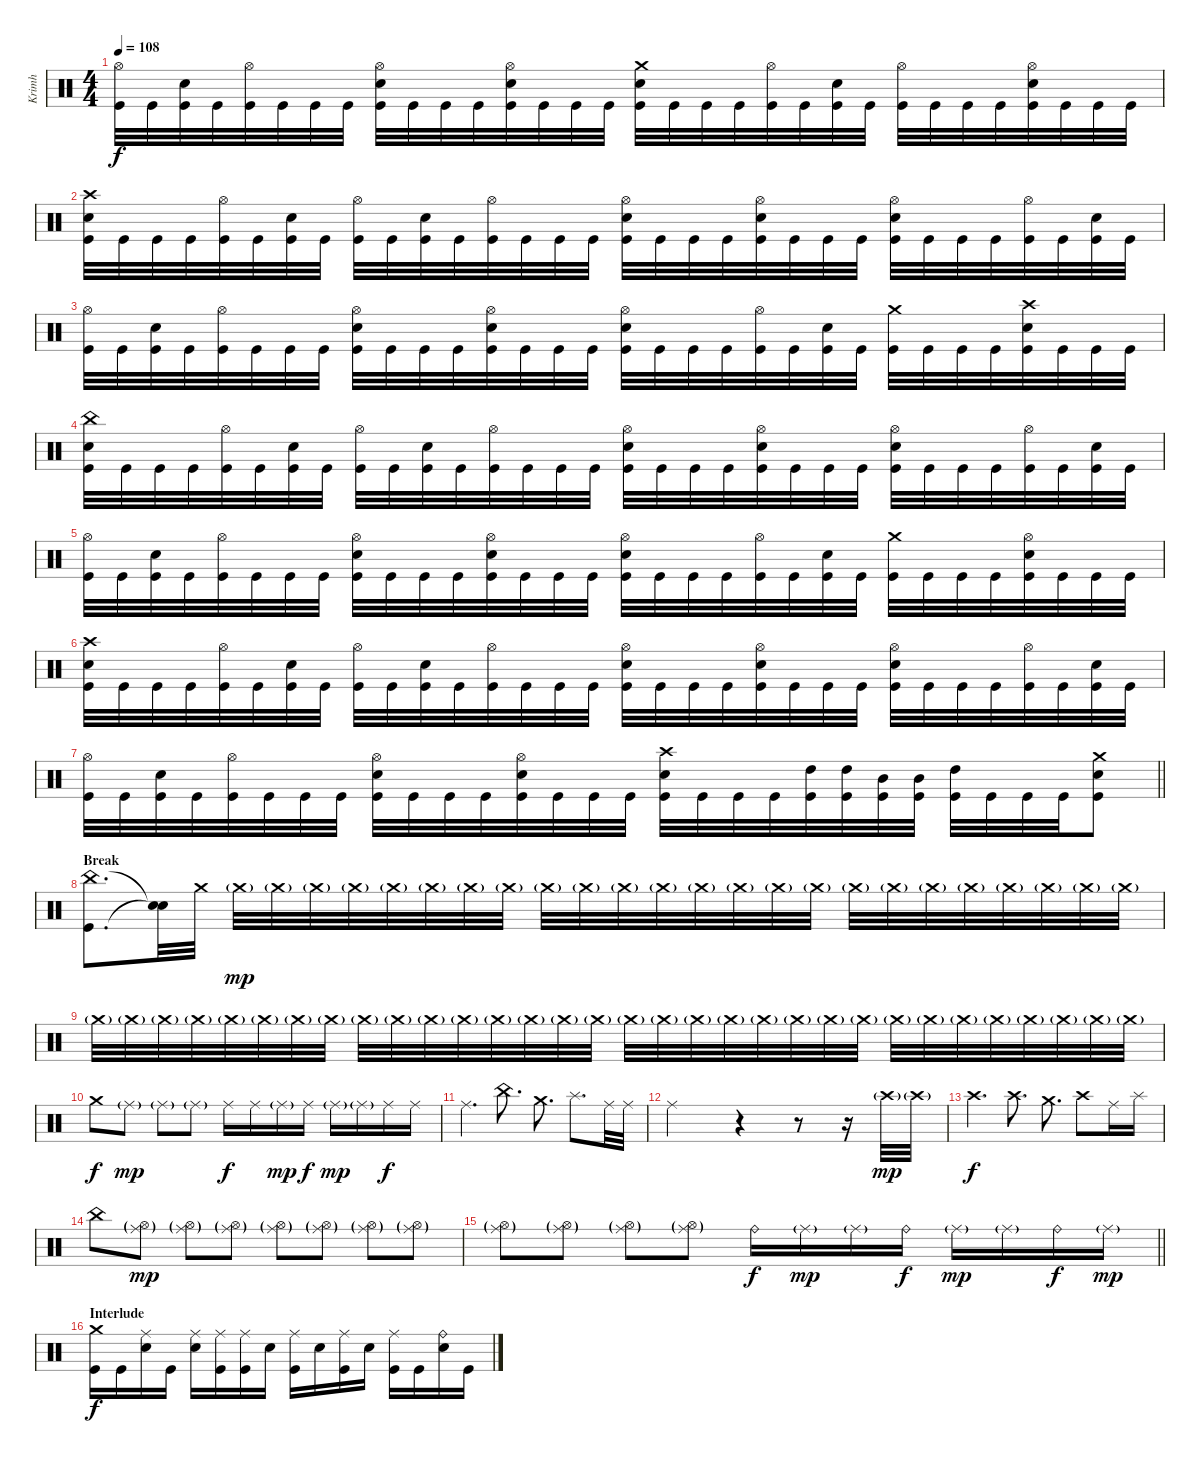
\track ("Krimh" "Krimh") {instrument percussion}
\staff {score}
\articulation defaults
\ts (4 4)
\tempo 108
\clef neutral
\ks c
("Hi-Hat (open)" "Kick (hit)").32{dy f} "Kick (hit)".32 ("Electric Snare (hit)" "Kick (hit)").32 "Kick (hit)".32 ("Hi-Hat (open)" "Kick (hit)").32 "Kick (hit)".32 "Kick (hit)".32 "Kick (hit)".32 ("Hi-Hat (open)" "Electric Snare (hit)" "Kick (hit)").32 "Kick (hit)".32 "Kick (hit)".32 "Kick (hit)".32 ("Hi-Hat (open)" "Electric Snare (hit)" "Kick (hit)").32 "Kick (hit)".32 "Kick (hit)".32 "Kick (hit)".32 ("Crash medium (hit)" "Electric Snare (hit)" "Kick (hit)").32 "Kick (hit)".32 "Kick (hit)".32 "Kick (hit)".32 ("Hi-Hat (open)" "Kick (hit)").32 "Kick (hit)".32 ("Electric Snare (hit)" "Kick (hit)").32 "Kick (hit)".32 ("Hi-Hat (open)" "Kick (hit)").32 "Kick (hit)".32 "Kick (hit)".32 "Kick (hit)".32 ("Hi-Hat (open)" "Electric Snare (hit)" "Kick (hit)").32 "Kick (hit)".32 "Kick (hit)".32 "Kick (hit)".32 |
("Crash high (hit)" "Electric Snare (hit)" "Kick (hit)").32 "Kick (hit)".32 "Kick (hit)".32 "Kick (hit)".32 ("Hi-Hat (open)" "Kick (hit)").32 "Kick (hit)".32 ("Electric Snare (hit)" "Kick (hit)").32 "Kick (hit)".32 ("Hi-Hat (open)" "Kick (hit)").32 "Kick (hit)".32 ("Electric Snare (hit)" "Kick (hit)").32 "Kick (hit)".32 ("Hi-Hat (open)" "Kick (hit)").32 "Kick (hit)".32 "Kick (hit)".32 "Kick (hit)".32 ("Hi-Hat (open)" "Electric Snare (hit)" "Kick (hit)").32 "Kick (hit)".32 "Kick (hit)".32 "Kick (hit)".32 ("Hi-Hat (open)" "Electric Snare (hit)" "Kick (hit)").32 "Kick (hit)".32 "Kick (hit)".32 "Kick (hit)".32 ("Hi-Hat (open)" "Electric Snare (hit)" "Kick (hit)").32 "Kick (hit)".32 "Kick (hit)".32 "Kick (hit)".32 ("Hi-Hat (open)" "Kick (hit)").32 "Kick (hit)".32 ("Electric Snare (hit)" "Kick (hit)").32 "Kick (hit)".32 |
("Hi-Hat (open)" "Kick (hit)").32 "Kick (hit)".32 ("Electric Snare (hit)" "Kick (hit)").32 "Kick (hit)".32 ("Hi-Hat (open)" "Kick (hit)").32 "Kick (hit)".32 "Kick (hit)".32 "Kick (hit)".32 ("Hi-Hat (open)" "Electric Snare (hit)" "Kick (hit)").32 "Kick (hit)".32 "Kick (hit)".32 "Kick (hit)".32 ("Hi-Hat (open)" "Electric Snare (hit)" "Kick (hit)").32 "Kick (hit)".32 "Kick (hit)".32 "Kick (hit)".32 ("Hi-Hat (open)" "Electric Snare (hit)" "Kick (hit)").32 "Kick (hit)".32 "Kick (hit)".32 "Kick (hit)".32 ("Hi-Hat (open)" "Kick (hit)").32 "Kick (hit)".32 ("Electric Snare (hit)" "Kick (hit)").32 "Kick (hit)".32 ("Crash medium (hit)" "Kick (hit)").32 "Kick (hit)".32 "Kick (hit)".32 "Kick (hit)".32 ("Crash high (hit)" "Electric Snare (hit)" "Kick (hit)").32 "Kick (hit)".32 "Kick (hit)".32 "Kick (hit)".32 |
("China (hit)" "Electric Snare (hit)" "Kick (hit)").32 "Kick (hit)".32 "Kick (hit)".32 "Kick (hit)".32 ("Hi-Hat (open)" "Kick (hit)").32 "Kick (hit)".32 ("Electric Snare (hit)" "Kick (hit)").32 "Kick (hit)".32 ("Hi-Hat (open)" "Kick (hit)").32 "Kick (hit)".32 ("Electric Snare (hit)" "Kick (hit)").32 "Kick (hit)".32 ("Hi-Hat (open)" "Kick (hit)").32 "Kick (hit)".32 "Kick (hit)".32 "Kick (hit)".32 ("Hi-Hat (open)" "Electric Snare (hit)" "Kick (hit)").32 "Kick (hit)".32 "Kick (hit)".32 "Kick (hit)".32 ("Hi-Hat (open)" "Electric Snare (hit)" "Kick (hit)").32 "Kick (hit)".32 "Kick (hit)".32 "Kick (hit)".32 ("Hi-Hat (open)" "Electric Snare (hit)" "Kick (hit)").32 "Kick (hit)".32 "Kick (hit)".32 "Kick (hit)".32 ("Hi-Hat (open)" "Kick (hit)").32 "Kick (hit)".32 ("Electric Snare (hit)" "Kick (hit)").32 "Kick (hit)".32 |
("Hi-Hat (open)" "Kick (hit)").32 "Kick (hit)".32 ("Electric Snare (hit)" "Kick (hit)").32 "Kick (hit)".32 ("Hi-Hat (open)" "Kick (hit)").32 "Kick (hit)".32 "Kick (hit)".32 "Kick (hit)".32 ("Hi-Hat (open)" "Electric Snare (hit)" "Kick (hit)").32 "Kick (hit)".32 "Kick (hit)".32 "Kick (hit)".32 ("Hi-Hat (open)" "Electric Snare (hit)" "Kick (hit)").32 "Kick (hit)".32 "Kick (hit)".32 "Kick (hit)".32 ("Hi-Hat (open)" "Electric Snare (hit)" "Kick (hit)").32 "Kick (hit)".32 "Kick (hit)".32 "Kick (hit)".32 ("Hi-Hat (open)" "Kick (hit)").32 "Kick (hit)".32 ("Electric Snare (hit)" "Kick (hit)").32 "Kick (hit)".32 ("Crash medium (hit)" "Kick (hit)").32 "Kick (hit)".32 "Kick (hit)".32 "Kick (hit)".32 ("Hi-Hat (open)" "Electric Snare (hit)" "Kick (hit)").32 "Kick (hit)".32 "Kick (hit)".32 "Kick (hit)".32 |
("Crash high (hit)" "Electric Snare (hit)" "Kick (hit)").32 "Kick (hit)".32 "Kick (hit)".32 "Kick (hit)".32 ("Hi-Hat (open)" "Kick (hit)").32 "Kick (hit)".32 ("Electric Snare (hit)" "Kick (hit)").32 "Kick (hit)".32 ("Hi-Hat (open)" "Kick (hit)").32 "Kick (hit)".32 ("Electric Snare (hit)" "Kick (hit)").32 "Kick (hit)".32 ("Hi-Hat (open)" "Kick (hit)").32 "Kick (hit)".32 "Kick (hit)".32 "Kick (hit)".32 ("Hi-Hat (open)" "Electric Snare (hit)" "Kick (hit)").32 "Kick (hit)".32 "Kick (hit)".32 "Kick (hit)".32 ("Hi-Hat (open)" "Electric Snare (hit)" "Kick (hit)").32 "Kick (hit)".32 "Kick (hit)".32 "Kick (hit)".32 ("Hi-Hat (open)" "Electric Snare (hit)" "Kick (hit)").32 "Kick (hit)".32 "Kick (hit)".32 "Kick (hit)".32 ("Hi-Hat (open)" "Kick (hit)").32 "Kick (hit)".32 ("Electric Snare (hit)" "Kick (hit)").32 "Kick (hit)".32 |
\barLineRight lightlight
("Hi-Hat (open)" "Kick (hit)").32 "Kick (hit)".32 ("Electric Snare (hit)" "Kick (hit)").32 "Kick (hit)".32 ("Hi-Hat (open)" "Kick (hit)").32 "Kick (hit)".32 "Kick (hit)".32 "Kick (hit)".32 ("Hi-Hat (open)" "Electric Snare (hit)" "Kick (hit)").32 "Kick (hit)".32 "Kick (hit)".32 "Kick (hit)".32 ("Hi-Hat (open)" "Electric Snare (hit)" "Kick (hit)").32 "Kick (hit)".32 "Kick (hit)".32 "Kick (hit)".32 ("Crash high (hit)" "Electric Snare (hit)" "Kick (hit)").32 "Kick (hit)".32 "Kick (hit)".32 "Kick (hit)".32 ("High Tom (hit)" "Kick (hit)").32 ("High Tom (hit)" "Kick (hit)").32 ("Mid Tom (hit)" "Kick (hit)").32 ("Mid Tom (hit)" "Kick (hit)").32 ("High Tom (hit)" "Kick (hit)").32 "Kick (hit)".32 "Kick (hit)".32 "Kick (hit)".32 ("Crash medium (hit)" "Electric Snare (hit)" "Kick (hit)").8 |
\section ("" "Break")
("China (hit)" "Kick (hit)").8{d} ("Snare (hit)"{t} "Snare (hit)"{t}).32 "Crash medium (hit)".32{volume 3} "Crash medium (hit)"{g}.32{dy mp volume 8} "Crash medium (hit)"{g}.32 "Crash medium (hit)"{g}.32 "Crash medium (hit)"{g}.32 "Crash medium (hit)"{g}.32 "Crash medium (hit)"{g}.32 "Crash medium (hit)"{g}.32 "Crash medium (hit)"{g}.32 "Crash medium (hit)"{g}.32 "Crash medium (hit)"{g}.32 "Crash medium (hit)"{g}.32 "Crash medium (hit)"{g}.32 "Crash medium (hit)"{g}.32 "Crash medium (hit)"{g}.32 "Crash medium (hit)"{g}.32 "Crash medium (hit)"{g}.32 "Crash medium (hit)"{g}.32 "Crash medium (hit)"{g}.32 "Crash medium (hit)"{g}.32 "Crash medium (hit)"{g}.32 "Crash medium (hit)"{g}.32 "Crash medium (hit)"{g}.32 "Crash medium (hit)"{g}.32 "Crash medium (hit)"{g}.32 |
"Crash medium (hit)"{g}.32 "Crash medium (hit)"{g}.32 "Crash medium (hit)"{g}.32 "Crash medium (hit)"{g}.32 "Crash medium (hit)"{g}.32 "Crash medium (hit)"{g}.32 "Crash medium (hit)"{g}.32 "Crash medium (hit)"{g}.32 "Crash medium (hit)"{g}.32{volume 13} "Crash medium (hit)"{g}.32 "Crash medium (hit)"{g}.32 "Crash medium (hit)"{g}.32 "Crash medium (hit)"{g}.32 "Crash medium (hit)"{g}.32 "Crash medium (hit)"{g}.32 "Crash medium (hit)"{g}.32 "Crash medium (hit)"{g}.32 "Crash medium (hit)"{g}.32 "Crash medium (hit)"{g}.32 "Crash medium (hit)"{g}.32 "Crash medium (hit)"{g}.32 "Crash medium (hit)"{g}.32 "Crash medium (hit)"{g}.32 "Crash medium (hit)"{g}.32 "Crash medium (hit)"{g}.32 "Crash medium (hit)"{g}.32 "Crash medium (hit)"{g}.32 "Crash medium (hit)"{g}.32 "Crash medium (hit)"{g}.32 "Crash medium (hit)"{g}.32 "Crash medium (hit)"{g}.32 "Crash medium (hit)"{g}.32 |
"Crash medium (hit)".8{dy f} "Ride (middle)"{g}.8{dy mp} "Ride (middle)"{g}.8 "Ride (middle)"{g}.8 "Ride (middle)".16{dy f} "Ride (middle)".16 "Ride (middle)"{g}.16{dy mp} "Ride (middle)".16{dy f} "Ride (middle)"{g}.16{dy mp} "Ride (middle)"{g}.16 "Ride (middle)".16{dy f} "Ride (middle)".16 |
"Ride (middle)".4{d} "China (hit)".8{d} "Crash medium (hit)".8{d} "Splash (hit)".8{d} "Ride (middle)".32 "Ride (middle)".32 |
"Ride (middle)".2 r.4 r.8 r.16 "Crash high (hit)"{g}.32{dy mp} "Crash high (hit)"{g}.32 |
"Crash high (hit)".4{d dy f} "Crash high (hit)".8{d} "Crash medium (hit)".8{d} "Crash high (hit)".8 "Ride (middle)".16 "Splash (hit)".16 |
"China (hit)".8 ("Ride (middle)"{g} "Hi-Hat (open)"{g}).8{dy mp} ("Ride (middle)"{g} "Hi-Hat (open)"{g}).8 ("Ride (middle)"{g} "Hi-Hat (open)"{g}).8 ("Ride (middle)"{g} "Hi-Hat (open)"{g}).8 ("Ride (middle)"{g} "Hi-Hat (open)"{g}).8 ("Ride (middle)"{g} "Hi-Hat (open)"{g}).8 ("Ride (middle)"{g} "Hi-Hat (open)"{g}).8 |
\barLineRight lightlight
("Ride (middle)"{g} "Hi-Hat (open)"{g}).8 ("Ride (middle)"{g} "Hi-Hat (open)"{g}).8 ("Ride (middle)"{g} "Hi-Hat (open)"{g}).8 ("Ride (middle)"{g} "Hi-Hat (open)"{g}).8 "Ride (bell)".16{dy f} "Ride (middle)"{g}.16{dy mp} "Ride (middle)"{g}.16 "Ride (bell)".16{dy f} "Ride (middle)"{g}.16{dy mp} "Ride (middle)"{g}.16 "Ride (bell)".16{dy f} "Ride (middle)"{g}.16{dy mp} |
\section ("" "Interlude")
("Crash medium (hit)" "Kick (hit)").16{dy f} "Kick (hit)".16 ("Ride (middle)" "Electric Snare (hit)").16 "Kick (hit)".16 ("Ride (middle)" "Electric Snare (hit)").16 ("Ride (middle)" "Kick (hit)").16 ("Ride (middle)" "Kick (hit)").16 "Electric Snare (hit)".16 ("Ride (middle)" "Kick (hit)").16 "Electric Snare (hit)".16 ("Ride (middle)" "Kick (hit)").16 "Electric Snare (hit)".16 ("Ride (middle)" "Kick (hit)").16 "Kick (hit)".16 ("Ride (bell)" "Electric Snare (hit)").16 "Kick (hit)".16
